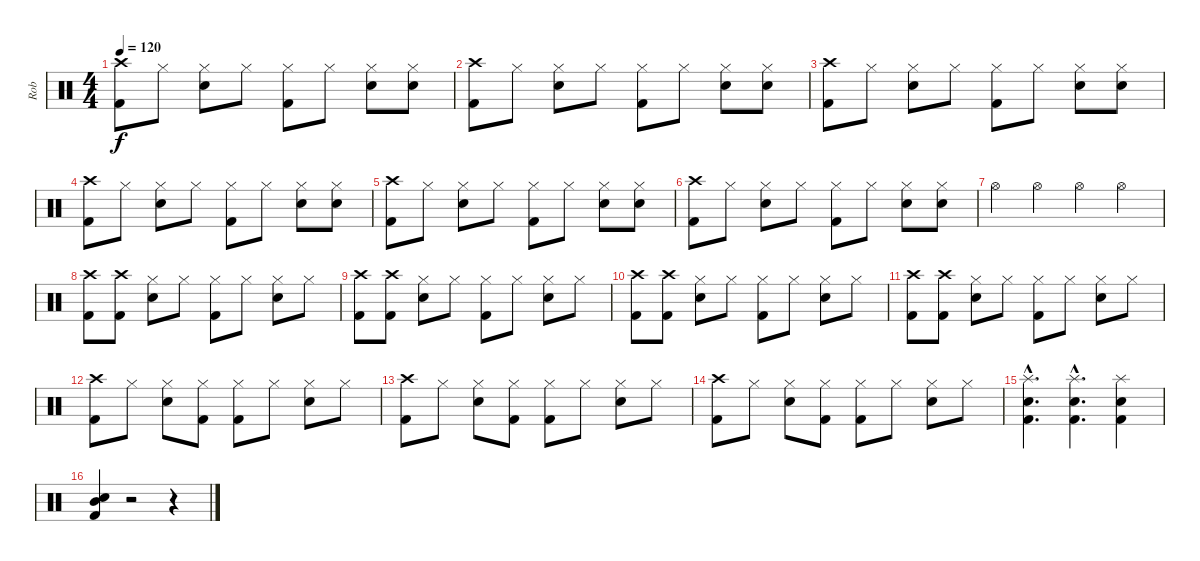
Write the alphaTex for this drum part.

\track ("Rob" "Rob") {instrument percussion}
\staff {score}
\articulation defaults
\ts (4 4)
\tempo 120
\clef neutral
\ks c
("Crash high (hit)" "Kick (hit) 2").8{dy f} "Hi-Hat (closed)".8 ("Hi-Hat (closed)" "Snare (hit) 2").8 "Hi-Hat (closed)".8 ("Hi-Hat (closed)" "Kick (hit) 2").8 "Hi-Hat (closed)".8 ("Hi-Hat (closed)" "Snare (hit) 2").8 ("Hi-Hat (closed)" "Snare (hit) 2").8 |
("Crash high (hit)" "Kick (hit) 2").8 "Hi-Hat (closed)".8 ("Hi-Hat (closed)" "Snare (hit) 2").8 "Hi-Hat (closed)".8 ("Hi-Hat (closed)" "Kick (hit) 2").8 "Hi-Hat (closed)".8 ("Hi-Hat (closed)" "Snare (hit) 2").8 ("Hi-Hat (closed)" "Snare (hit) 2").8 |
("Crash high (hit)" "Kick (hit) 2").8 "Hi-Hat (closed)".8 ("Hi-Hat (closed)" "Snare (hit) 2").8 "Hi-Hat (closed)".8 ("Hi-Hat (closed)" "Kick (hit) 2").8 "Hi-Hat (closed)".8 ("Hi-Hat (closed)" "Snare (hit) 2").8 ("Hi-Hat (closed)" "Snare (hit) 2").8 |
("Crash high (hit)" "Kick (hit) 2").8 "Hi-Hat (closed)".8 ("Hi-Hat (closed)" "Snare (hit) 2").8 "Hi-Hat (closed)".8 ("Hi-Hat (closed)" "Kick (hit) 2").8 "Hi-Hat (closed)".8 ("Hi-Hat (closed)" "Snare (hit) 2").8 ("Hi-Hat (closed)" "Snare (hit) 2").8 |
("Crash high (hit)" "Kick (hit) 2").8 "Hi-Hat (closed)".8 ("Hi-Hat (closed)" "Snare (hit) 2").8 "Hi-Hat (closed)".8 ("Hi-Hat (closed)" "Kick (hit) 2").8 "Hi-Hat (closed)".8 ("Hi-Hat (closed)" "Snare (hit) 2").8 ("Hi-Hat (closed)" "Snare (hit) 2").8 |
("Crash high (hit)" "Kick (hit) 2").8 "Hi-Hat (closed)".8 ("Hi-Hat (closed)" "Snare (hit) 2").8 "Hi-Hat (closed)".8 ("Hi-Hat (closed)" "Kick (hit) 2").8 "Hi-Hat (closed)".8 ("Hi-Hat (closed)" "Snare (hit) 2").8 ("Hi-Hat (closed)" "Snare (hit) 2").8 |
"Hi-Hat (open)".4 "Hi-Hat (open)".4 "Hi-Hat (open)".4 "Hi-Hat (open)".4 |
("Crash high (hit)" "Kick (hit) 2").8 ("Crash high (hit)" "Kick (hit) 2").8 ("Hi-Hat (closed)" "Snare (hit) 2").8 "Hi-Hat (closed)".8 ("Hi-Hat (closed)" "Kick (hit) 2").8 "Hi-Hat (closed)".8 ("Hi-Hat (closed)" "Snare (hit) 2").8 "Hi-Hat (closed)".8 |
("Crash high (hit)" "Kick (hit) 2").8 ("Crash high (hit)" "Kick (hit) 2").8 ("Hi-Hat (closed)" "Snare (hit) 2").8 "Hi-Hat (closed)".8 ("Hi-Hat (closed)" "Kick (hit) 2").8 "Hi-Hat (closed)".8 ("Hi-Hat (closed)" "Snare (hit) 2").8 "Hi-Hat (closed)".8 |
("Crash high (hit)" "Kick (hit) 2").8 ("Crash high (hit)" "Kick (hit) 2").8 ("Hi-Hat (closed)" "Snare (hit) 2").8 "Hi-Hat (closed)".8 ("Hi-Hat (closed)" "Kick (hit) 2").8 "Hi-Hat (closed)".8 ("Hi-Hat (closed)" "Snare (hit) 2").8 "Hi-Hat (closed)".8 |
("Crash high (hit)" "Kick (hit) 2").8 ("Crash high (hit)" "Kick (hit) 2").8 ("Hi-Hat (closed)" "Snare (hit) 2").8 "Hi-Hat (closed)".8 ("Hi-Hat (closed)" "Kick (hit) 2").8 "Hi-Hat (closed)".8 ("Hi-Hat (closed)" "Snare (hit) 2").8 "Hi-Hat (closed)".8 |
("Crash high (hit)" "Kick (hit) 2").8 "Hi-Hat (closed)".8 ("Hi-Hat (closed)" "Snare (hit) 2").8 ("Hi-Hat (closed)" "Kick (hit) 2").8 ("Hi-Hat (closed)" "Kick (hit) 2").8 "Hi-Hat (closed)".8 ("Hi-Hat (closed)" "Snare (hit) 2").8 "Hi-Hat (closed)".8 |
("Crash high (hit)" "Kick (hit) 2").8 "Hi-Hat (closed)".8 ("Hi-Hat (closed)" "Snare (hit) 2").8 ("Hi-Hat (closed)" "Kick (hit) 2").8 ("Hi-Hat (closed)" "Kick (hit) 2").8 "Hi-Hat (closed)".8 ("Hi-Hat (closed)" "Snare (hit) 2").8 "Hi-Hat (closed)".8 |
("Crash high (hit)" "Kick (hit) 2").8 "Hi-Hat (closed)".8 ("Hi-Hat (closed)" "Snare (hit) 2").8 ("Hi-Hat (closed)" "Kick (hit) 2").8 ("Hi-Hat (closed)" "Kick (hit) 2").8 "Hi-Hat (closed)".8 ("Hi-Hat (closed)" "Snare (hit) 2").8 "Hi-Hat (closed)".8 |
("Splash (hit)"{hac} "Snare (hit) 2"{hac} "Kick (hit) 2"{hac}).4{d} ("Splash (hit)"{hac} "Snare (hit) 2"{hac} "Kick (hit) 2"{hac}).4{d} ("Splash (hit)" "Snare (hit) 2" "Kick (hit) 2").4 |
("Mid Tom (hit)" "Kick (hit) 2" "Snare (hit) 2").4 r.2 r.4
